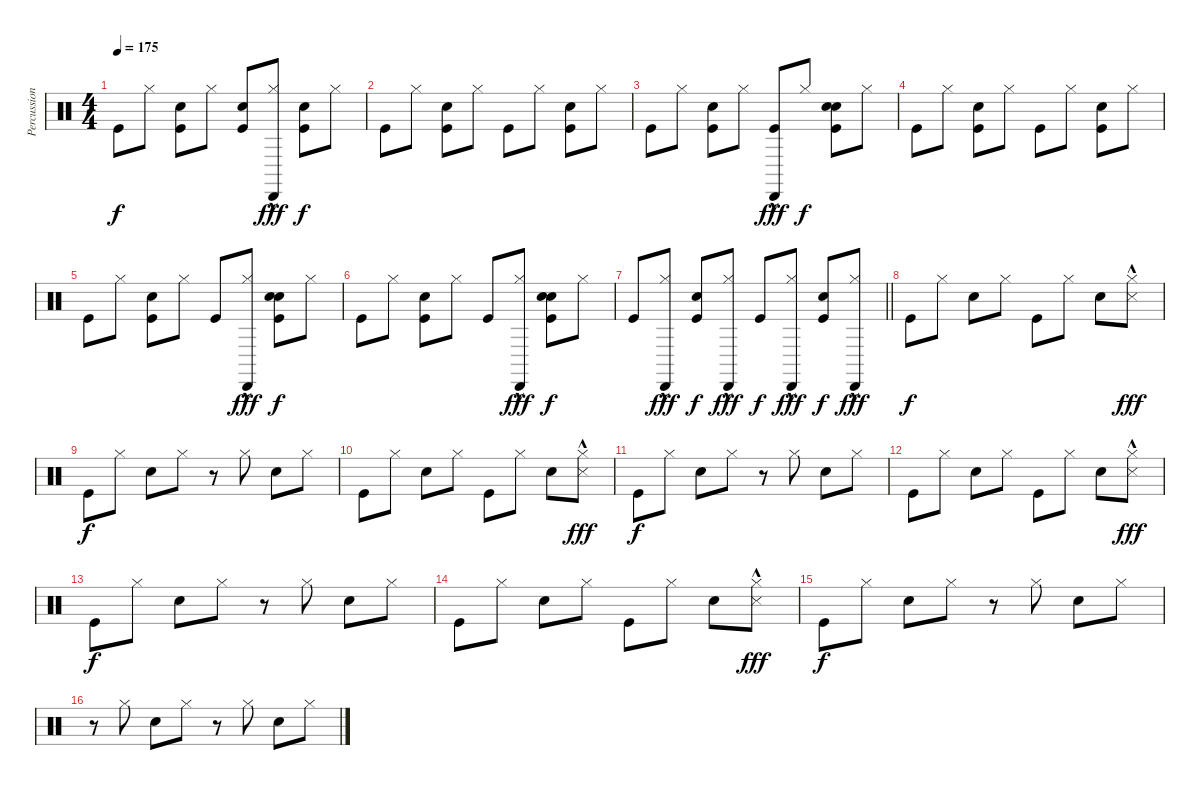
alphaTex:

\track ("Percussion" "Percussion") {instrument percussion}
\staff {score}
\articulation defaults
\ts (4 4)
\tempo 175
\clef neutral
\ks c "Kick (hit)".8{dy f} "Hi-Hat (closed)".8
("Kick (hit)" "Snare (hit) 2").8 "Hi-Hat (closed)".8 ("Kick (hit)" "Hand Clap (hit)").8 ("Hi-Hat (closed)" "Cabasa (hit)"{hac}).8{dy fff} ("Kick (hit)" "Snare (hit) 2").8{dy f} "Hi-Hat (closed)".8 |
"Kick (hit)".8 "Hi-Hat (closed)".8 ("Kick (hit)" "Snare (hit) 2").8 "Hi-Hat (closed)".8 "Kick (hit)".8 "Hi-Hat (closed)".8 ("Kick (hit)" "Snare (hit) 2").8 "Hi-Hat (closed)".8 |
"Kick (hit)".8 "Hi-Hat (closed)".8 ("Kick (hit)" "Snare (hit) 2").8 "Hi-Hat (closed)".8 ("Kick (hit)" "Cabasa (hit)"{hac}).8{dy fff} "Hi-Hat (closed)".8{dy f} ("Kick (hit)" "Snare (hit) 2" "Hand Clap (hit)").8 "Hi-Hat (closed)".8 |
"Kick (hit)".8 "Hi-Hat (closed)".8 ("Kick (hit)" "Snare (hit) 2").8 "Hi-Hat (closed)".8 "Kick (hit)".8 "Hi-Hat (closed)".8 ("Kick (hit)" "Snare (hit) 2").8 "Hi-Hat (closed)".8 |
"Kick (hit)".8 "Hi-Hat (closed)".8 ("Kick (hit)" "Snare (hit) 2").8 "Hi-Hat (closed)".8 "Kick (hit)".8 ("Hi-Hat (closed)" "Cabasa (hit)"{hac}).8{dy fff} ("Kick (hit)" "Snare (hit) 2" "Hand Clap (hit)").8{dy f} "Hi-Hat (closed)".8 |
"Kick (hit)".8 "Hi-Hat (closed)".8 ("Kick (hit)" "Snare (hit) 2").8 "Hi-Hat (closed)".8 "Kick (hit)".8 ("Hi-Hat (closed)" "Cabasa (hit)"{hac}).8{dy fff} ("Kick (hit)" "Snare (hit) 2" "Hand Clap (hit)").8{dy f} "Hi-Hat (closed)".8 |
\barLineRight lightlight "Kick (hit)".8
("Hi-Hat (closed)" "Cabasa (hit)"{hac}).8{dy fff} ("Kick (hit)" "Snare (hit) 2").8{dy f} ("Hi-Hat (closed)" "Cabasa (hit)"{hac}).8{dy fff} "Kick (hit)".8{dy f} ("Hi-Hat (closed)" "Cabasa (hit)"{hac}).8{dy fff} ("Kick (hit)" "Snare (hit) 2").8{dy f} ("Hi-Hat (closed)" "Cabasa (hit)"{hac}).8{dy fff} |
"Kick (hit)".8{dy f} "Hi-Hat (closed)".8 "Hand Clap (hit)".8 "Hi-Hat (closed)".8 "Kick (hit)".8 "Hi-Hat (closed)".8 "Hand Clap (hit)".8 ("Hi-Hat (closed)" "Snare (side stick) 3"{hac}).8{dy fff} |
"Kick (hit)".8{dy f} "Hi-Hat (closed)".8 "Hand Clap (hit)".8 "Hi-Hat (closed)".8 r.8 "Hi-Hat (closed)".8 "Hand Clap (hit)".8 "Hi-Hat (closed)".8 |
"Kick (hit)".8 "Hi-Hat (closed)".8 "Hand Clap (hit)".8 "Hi-Hat (closed)".8 "Kick (hit)".8 "Hi-Hat (closed)".8 "Hand Clap (hit)".8 ("Hi-Hat (closed)" "Snare (side stick) 3"{hac}).8{dy fff} |
"Kick (hit)".8{dy f} "Hi-Hat (closed)".8 "Hand Clap (hit)".8 "Hi-Hat (closed)".8 r.8 "Hi-Hat (closed)".8 "Hand Clap (hit)".8 "Hi-Hat (closed)".8 |
"Kick (hit)".8 "Hi-Hat (closed)".8 "Hand Clap (hit)".8 "Hi-Hat (closed)".8 "Kick (hit)".8 "Hi-Hat (closed)".8 "Hand Clap (hit)".8 ("Hi-Hat (closed)" "Snare (side stick) 3"{hac}).8{dy fff} |
"Kick (hit)".8{dy f} "Hi-Hat (closed)".8 "Hand Clap (hit)".8 "Hi-Hat (closed)".8 r.8 "Hi-Hat (closed)".8 "Hand Clap (hit)".8 "Hi-Hat (closed)".8 |
"Kick (hit)".8 "Hi-Hat (closed)".8 "Hand Clap (hit)".8 "Hi-Hat (closed)".8 "Kick (hit)".8 "Hi-Hat (closed)".8 "Hand Clap (hit)".8 ("Hi-Hat (closed)" "Snare (side stick) 3"{hac}).8{dy fff} |
"Kick (hit)".8{dy f} "Hi-Hat (closed)".8 "Hand Clap (hit)".8 "Hi-Hat (closed)".8 r.8 "Hi-Hat (closed)".8 "Hand Clap (hit)".8 "Hi-Hat (closed)".8 |
r.8 "Hi-Hat (closed)".8 "Hand Clap (hit)".8 "Hi-Hat (closed)".8 r.8 "Hi-Hat (closed)".8 "Hand Clap (hit)".8 "Hi-Hat (closed)".8
